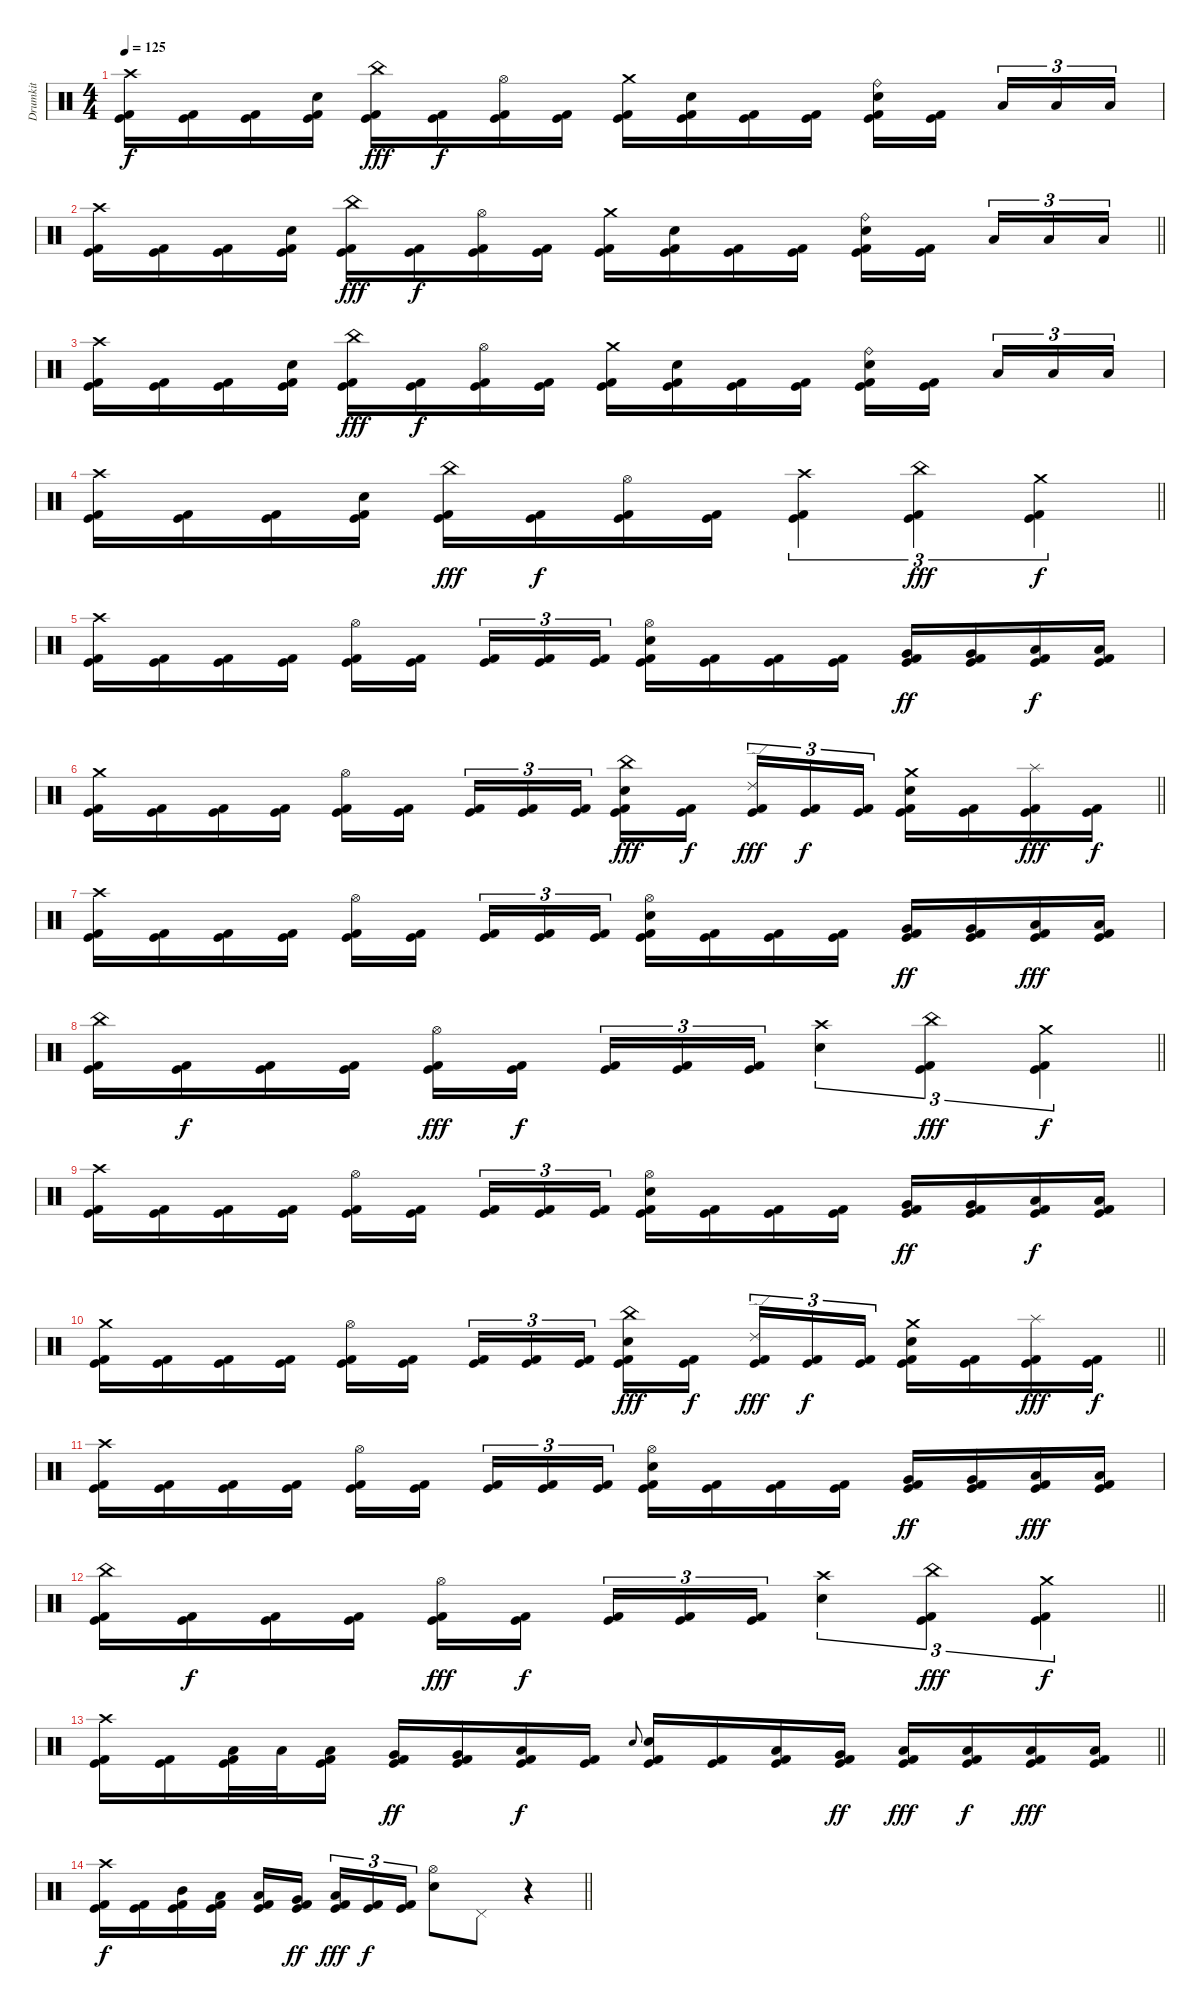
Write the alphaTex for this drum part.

\track ("Drumkit" "Drumkit") {instrument percussion}
\staff {score}
\articulation defaults
\ts (4 4)
\tempo 125
\clef neutral
\ks c
("Crash high (hit)" "Kick (hit)" "Kick (hit) 2").16{dy f} ("Kick (hit)" "Kick (hit) 2").16 ("Kick (hit)" "Kick (hit) 2").16 ("Electric Snare (hit)" "Kick (hit)" "Kick (hit) 2").16 ("China (hit)" "Kick (hit)" "Kick (hit) 2").16{dy fff} ("Kick (hit)" "Kick (hit) 2").16{dy f} ("Hi-Hat (open)" "Kick (hit)" "Kick (hit) 2").16 ("Kick (hit)" "Kick (hit) 2").16 ("Crash medium (hit)" "Kick (hit)" "Kick (hit) 2").16 ("Electric Snare (hit)" "Kick (hit)" "Kick (hit) 2").16 ("Kick (hit)" "Kick (hit) 2").16 ("Kick (hit)" "Kick (hit) 2").16 ("Ride (bell)" "Electric Snare (hit)" "Kick (hit)" "Kick (hit) 2").16 ("Kick (hit)" "Kick (hit) 2").16{beam splitsecondary} "Low Tom (hit)".16{tu (3 2)} "Low Tom (hit)".16{tu (3 2)} "Low Tom (hit)".16{tu (3 2)} |
\barLineRight lightlight
("Crash high (hit)" "Kick (hit)" "Kick (hit) 2").16 ("Kick (hit)" "Kick (hit) 2").16 ("Kick (hit)" "Kick (hit) 2").16 ("Electric Snare (hit)" "Kick (hit)" "Kick (hit) 2").16 ("China (hit)" "Kick (hit)" "Kick (hit) 2").16{dy fff} ("Kick (hit)" "Kick (hit) 2").16{dy f} ("Hi-Hat (open)" "Kick (hit)" "Kick (hit) 2").16 ("Kick (hit)" "Kick (hit) 2").16 ("Crash medium (hit)" "Kick (hit)" "Kick (hit) 2").16 ("Electric Snare (hit)" "Kick (hit)" "Kick (hit) 2").16 ("Kick (hit)" "Kick (hit) 2").16 ("Kick (hit)" "Kick (hit) 2").16 ("Ride (bell)" "Electric Snare (hit)" "Kick (hit)" "Kick (hit) 2").16 ("Kick (hit)" "Kick (hit) 2").16{beam splitsecondary} "Low Tom (hit)".16{tu (3 2)} "Low Tom (hit)".16{tu (3 2)} "Low Tom (hit)".16{tu (3 2)} |
("Crash high (hit)" "Kick (hit)" "Kick (hit) 2").16 ("Kick (hit)" "Kick (hit) 2").16 ("Kick (hit)" "Kick (hit) 2").16 ("Electric Snare (hit)" "Kick (hit)" "Kick (hit) 2").16 ("China (hit)" "Kick (hit)" "Kick (hit) 2").16{dy fff} ("Kick (hit)" "Kick (hit) 2").16{dy f} ("Hi-Hat (open)" "Kick (hit)" "Kick (hit) 2").16 ("Kick (hit)" "Kick (hit) 2").16 ("Crash medium (hit)" "Kick (hit)" "Kick (hit) 2").16 ("Electric Snare (hit)" "Kick (hit)" "Kick (hit) 2").16 ("Kick (hit)" "Kick (hit) 2").16 ("Kick (hit)" "Kick (hit) 2").16 ("Ride (bell)" "Electric Snare (hit)" "Kick (hit)" "Kick (hit) 2").16 ("Kick (hit)" "Kick (hit) 2").16{beam splitsecondary} "Low Tom (hit)".16{tu (3 2)} "Low Tom (hit)".16{tu (3 2)} "Low Tom (hit)".16{tu (3 2)} |
\barLineRight lightlight
("Crash high (hit)" "Kick (hit)" "Kick (hit) 2").16 ("Kick (hit)" "Kick (hit) 2").16 ("Kick (hit)" "Kick (hit) 2").16 ("Electric Snare (hit)" "Kick (hit)" "Kick (hit) 2").16 ("China (hit)" "Kick (hit)" "Kick (hit) 2").16{dy fff} ("Kick (hit)" "Kick (hit) 2").16{dy f} ("Hi-Hat (open)" "Kick (hit)" "Kick (hit) 2").16 ("Kick (hit)" "Kick (hit) 2").16 ("Crash high (hit)" "Kick (hit)" "Kick (hit) 2").4{tu (3 2)} ("China (hit)" "Kick (hit)" "Kick (hit) 2").4{tu (3 2) dy fff} ("Crash medium (hit)" "Kick (hit)" "Kick (hit) 2").4{tu (3 2) dy f} |
("Crash high (hit)" "Kick (hit)" "Kick (hit) 2").16 ("Kick (hit)" "Kick (hit) 2").16 ("Kick (hit)" "Kick (hit) 2").16 ("Kick (hit)" "Kick (hit) 2").16 ("Hi-Hat (open)" "Kick (hit)" "Kick (hit) 2").16 ("Kick (hit)" "Kick (hit) 2").16{beam splitsecondary} ("Kick (hit)" "Kick (hit) 2").16{tu (3 2)} ("Kick (hit)" "Kick (hit) 2").16{tu (3 2)} ("Kick (hit)" "Kick (hit) 2").16{tu (3 2)} ("Hi-Hat (open)" "Electric Snare (hit)" "Kick (hit)" "Kick (hit) 2").16 ("Kick (hit)" "Kick (hit) 2").16 ("Kick (hit)" "Kick (hit) 2").16 ("Kick (hit)" "Kick (hit) 2").16 ("Very Low Tom (hit)" "Kick (hit)" "Kick (hit) 2").16{dy ff} ("Very Low Tom (hit)" "Kick (hit)" "Kick (hit) 2").16 ("Low Tom (hit)" "Kick (hit)" "Kick (hit) 2").16{dy f} ("Low Tom (hit)" "Kick (hit)" "Kick (hit) 2").16 |
\barLineRight lightlight
("Crash medium (hit)" "Kick (hit)" "Kick (hit) 2").16 ("Kick (hit)" "Kick (hit) 2").16 ("Kick (hit)" "Kick (hit) 2").16 ("Kick (hit)" "Kick (hit) 2").16 ("Hi-Hat (open)" "Kick (hit)" "Kick (hit) 2").16 ("Kick (hit)" "Kick (hit) 2").16{beam splitsecondary} ("Kick (hit)" "Kick (hit) 2").16{tu (3 2)} ("Kick (hit)" "Kick (hit) 2").16{tu (3 2)} ("Kick (hit)" "Kick (hit) 2").16{tu (3 2)} ("China (hit)" "Electric Snare (hit)" "Kick (hit)" "Kick (hit) 2").16{dy fff} ("Kick (hit)" "Kick (hit) 2").16{dy f beam splitsecondary} ("Ride (edge) 2" "Kick (hit)" "Kick (hit) 2").16{tu (3 2) dy fff} ("Kick (hit)" "Kick (hit) 2").16{tu (3 2) dy f} ("Kick (hit)" "Kick (hit) 2").16{tu (3 2)} ("Crash medium (hit)" "Electric Snare (hit)" "Kick (hit)" "Kick (hit) 2").16 ("Kick (hit)" "Kick (hit) 2").16 ("Splash (hit)" "Kick (hit)" "Kick (hit) 2").16{dy fff} ("Kick (hit)" "Kick (hit) 2").16{dy f} |
("Crash high (hit)" "Kick (hit)" "Kick (hit) 2").16 ("Kick (hit)" "Kick (hit) 2").16 ("Kick (hit)" "Kick (hit) 2").16 ("Kick (hit)" "Kick (hit) 2").16 ("Hi-Hat (open)" "Kick (hit)" "Kick (hit) 2").16 ("Kick (hit)" "Kick (hit) 2").16{beam splitsecondary} ("Kick (hit)" "Kick (hit) 2").16{tu (3 2)} ("Kick (hit)" "Kick (hit) 2").16{tu (3 2)} ("Kick (hit)" "Kick (hit) 2").16{tu (3 2)} ("Hi-Hat (open)" "Electric Snare (hit)" "Kick (hit)" "Kick (hit) 2").16 ("Kick (hit)" "Kick (hit) 2").16 ("Kick (hit)" "Kick (hit) 2").16 ("Kick (hit)" "Kick (hit) 2").16 ("Very Low Tom (hit)" "Kick (hit)" "Kick (hit) 2").16{dy ff} ("Very Low Tom (hit)" "Kick (hit)" "Kick (hit) 2").16 ("Low Floor Tom (hit)" "Kick (hit)" "Kick (hit) 2").16{dy fff} ("Low Floor Tom (hit)" "Kick (hit)" "Kick (hit) 2").16 |
\barLineRight lightlight
("China (hit)" "Kick (hit)" "Kick (hit) 2").16 ("Kick (hit)" "Kick (hit) 2").16{dy f} ("Kick (hit)" "Kick (hit) 2").16 ("Kick (hit)" "Kick (hit) 2").16 ("Hi-Hat (open)" "Kick (hit)" "Kick (hit) 2").16{dy fff} ("Kick (hit)" "Kick (hit) 2").16{dy f beam splitsecondary} ("Kick (hit)" "Kick (hit) 2").16{tu (3 2)} ("Kick (hit)" "Kick (hit) 2").16{tu (3 2)} ("Kick (hit)" "Kick (hit) 2").16{tu (3 2)} ("Crash high (hit)" "Electric Snare (hit)").4{tu (3 2)} ("China (hit)" "Kick (hit)" "Kick (hit) 2").4{tu (3 2) dy fff} ("Crash medium (hit)" "Kick (hit)" "Kick (hit) 2").4{tu (3 2) dy f} |
("Crash high (hit)" "Kick (hit)" "Kick (hit) 2").16 ("Kick (hit)" "Kick (hit) 2").16 ("Kick (hit)" "Kick (hit) 2").16 ("Kick (hit)" "Kick (hit) 2").16 ("Hi-Hat (open)" "Kick (hit)" "Kick (hit) 2").16 ("Kick (hit)" "Kick (hit) 2").16{beam splitsecondary} ("Kick (hit)" "Kick (hit) 2").16{tu (3 2)} ("Kick (hit)" "Kick (hit) 2").16{tu (3 2)} ("Kick (hit)" "Kick (hit) 2").16{tu (3 2)} ("Hi-Hat (open)" "Electric Snare (hit)" "Kick (hit)" "Kick (hit) 2").16 ("Kick (hit)" "Kick (hit) 2").16 ("Kick (hit)" "Kick (hit) 2").16 ("Kick (hit)" "Kick (hit) 2").16 ("Very Low Tom (hit)" "Kick (hit)" "Kick (hit) 2").16{dy ff} ("Very Low Tom (hit)" "Kick (hit)" "Kick (hit) 2").16 ("Low Tom (hit)" "Kick (hit)" "Kick (hit) 2").16{dy f} ("Low Tom (hit)" "Kick (hit)" "Kick (hit) 2").16 |
\barLineRight lightlight
("Crash medium (hit)" "Kick (hit)" "Kick (hit) 2").16 ("Kick (hit)" "Kick (hit) 2").16 ("Kick (hit)" "Kick (hit) 2").16 ("Kick (hit)" "Kick (hit) 2").16 ("Hi-Hat (open)" "Kick (hit)" "Kick (hit) 2").16 ("Kick (hit)" "Kick (hit) 2").16{beam splitsecondary} ("Kick (hit)" "Kick (hit) 2").16{tu (3 2)} ("Kick (hit)" "Kick (hit) 2").16{tu (3 2)} ("Kick (hit)" "Kick (hit) 2").16{tu (3 2)} ("China (hit)" "Electric Snare (hit)" "Kick (hit)" "Kick (hit) 2").16{dy fff} ("Kick (hit)" "Kick (hit) 2").16{dy f beam splitsecondary} ("Ride (edge) 2" "Kick (hit)" "Kick (hit) 2").16{tu (3 2) dy fff} ("Kick (hit)" "Kick (hit) 2").16{tu (3 2) dy f} ("Kick (hit)" "Kick (hit) 2").16{tu (3 2)} ("Crash medium (hit)" "Electric Snare (hit)" "Kick (hit)" "Kick (hit) 2").16 ("Kick (hit)" "Kick (hit) 2").16 ("Splash (hit)" "Kick (hit)" "Kick (hit) 2").16{dy fff} ("Kick (hit)" "Kick (hit) 2").16{dy f} |
("Crash high (hit)" "Kick (hit)" "Kick (hit) 2").16 ("Kick (hit)" "Kick (hit) 2").16 ("Kick (hit)" "Kick (hit) 2").16 ("Kick (hit)" "Kick (hit) 2").16 ("Hi-Hat (open)" "Kick (hit)" "Kick (hit) 2").16 ("Kick (hit)" "Kick (hit) 2").16{beam splitsecondary} ("Kick (hit)" "Kick (hit) 2").16{tu (3 2)} ("Kick (hit)" "Kick (hit) 2").16{tu (3 2)} ("Kick (hit)" "Kick (hit) 2").16{tu (3 2)} ("Hi-Hat (open)" "Electric Snare (hit)" "Kick (hit)" "Kick (hit) 2").16 ("Kick (hit)" "Kick (hit) 2").16 ("Kick (hit)" "Kick (hit) 2").16 ("Kick (hit)" "Kick (hit) 2").16 ("Very Low Tom (hit)" "Kick (hit)" "Kick (hit) 2").16{dy ff} ("Very Low Tom (hit)" "Kick (hit)" "Kick (hit) 2").16 ("Low Floor Tom (hit)" "Kick (hit)" "Kick (hit) 2").16{dy fff} ("Low Floor Tom (hit)" "Kick (hit)" "Kick (hit) 2").16 |
\barLineRight lightlight
("China (hit)" "Kick (hit)" "Kick (hit) 2").16 ("Kick (hit)" "Kick (hit) 2").16{dy f} ("Kick (hit)" "Kick (hit) 2").16 ("Kick (hit)" "Kick (hit) 2").16 ("Hi-Hat (open)" "Kick (hit)" "Kick (hit) 2").16{dy fff} ("Kick (hit)" "Kick (hit) 2").16{dy f beam splitsecondary} ("Kick (hit)" "Kick (hit) 2").16{tu (3 2)} ("Kick (hit)" "Kick (hit) 2").16{tu (3 2)} ("Kick (hit)" "Kick (hit) 2").16{tu (3 2)} ("Crash high (hit)" "Electric Snare (hit)").4{tu (3 2)} ("China (hit)" "Kick (hit)" "Kick (hit) 2").4{tu (3 2) dy fff} ("Crash medium (hit)" "Kick (hit)" "Kick (hit) 2").4{tu (3 2) dy f} |
\barLineRight lightlight
("Crash high (hit)" "Kick (hit)" "Kick (hit) 2").16 ("Kick (hit)" "Kick (hit) 2").16 ("Low Tom (hit)" "Kick (hit)" "Kick (hit) 2").32 "Low Tom (hit)".32 ("Low Tom (hit)" "Kick (hit)" "Kick (hit) 2").16 ("Very Low Tom (hit)" "Kick (hit)" "Kick (hit) 2").16{dy ff} ("Very Low Tom (hit)" "Kick (hit)" "Kick (hit) 2").16 ("Low Floor Tom (hit)" "Kick (hit)" "Kick (hit) 2").16{dy f} ("Kick (hit)" "Kick (hit) 2").16 "Electric Snare (hit)".8{gr onbeat} ("Electric Snare (hit)" "Kick (hit)" "Kick (hit) 2").16 ("Kick (hit)" "Kick (hit) 2").16 ("Low Tom (hit)" "Kick (hit)" "Kick (hit) 2").16 ("Very Low Tom (hit)" "Kick (hit)" "Kick (hit) 2").16{dy ff} ("Low Floor Tom (hit)" "Kick (hit)" "Kick (hit) 2").16{dy fff} ("Low Tom (hit)" "Kick (hit)" "Kick (hit) 2").16{dy f} ("Low Floor Tom (hit)" "Kick (hit)" "Kick (hit) 2").16{dy fff} ("Low Floor Tom (hit)" "Kick (hit)" "Kick (hit) 2").16 |
\barLineRight lightlight
("Crash high (hit)" "Kick (hit)" "Kick (hit) 2").16{dy f} ("Kick (hit)" "Kick (hit) 2").16 ("Mid Tom (hit)" "Kick (hit)" "Kick (hit) 2").16 ("Low Tom (hit)" "Kick (hit)" "Kick (hit) 2").16 ("Low Tom (hit)" "Kick (hit)" "Kick (hit) 2").16 ("Very Low Tom (hit)" "Kick (hit)" "Kick (hit) 2").16{dy ff beam splitsecondary} ("Low Floor Tom (hit)" "Kick (hit)" "Kick (hit) 2").16{tu (3 2) dy fff} ("Kick (hit)" "Kick (hit) 2").16{tu (3 2) dy f} ("Kick (hit)" "Kick (hit) 2").16{tu (3 2)} ("Hi-Hat (open)" "Electric Snare (hit)").8 "Pedal Hi-Hat (hit)".8 r.4
